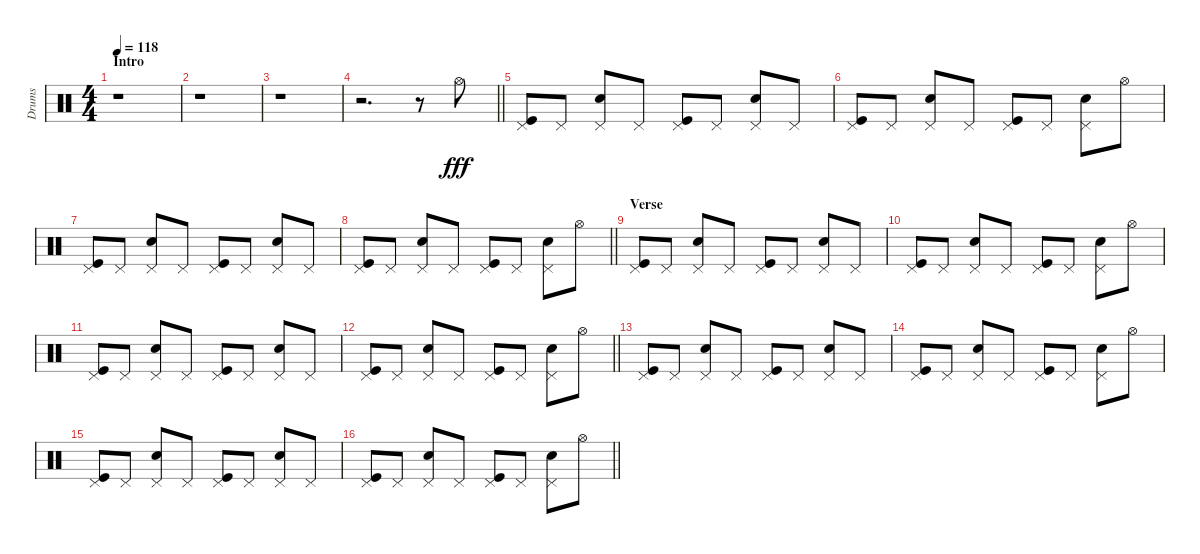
\track ("Drums" "Drums") {instrument percussion}
\staff {score}
\articulation defaults
\ts (4 4)
\section ("" "Intro")
\tempo 118
\clef neutral
\ks c
r.1{dy fff} |
r.1 |
r.1 |
\barLineRight lightlight
r.2{d} r.8 "Hi-Hat (open)".8 |
("Pedal Hi-Hat (hit)" "Kick (hit)").8 "Pedal Hi-Hat (hit)".8 ("Pedal Hi-Hat (hit)" "Electric Snare (hit)").8 "Pedal Hi-Hat (hit)".8 ("Pedal Hi-Hat (hit)" "Kick (hit)").8 "Pedal Hi-Hat (hit)".8 ("Pedal Hi-Hat (hit)" "Electric Snare (hit)").8 "Pedal Hi-Hat (hit)".8 |
("Pedal Hi-Hat (hit)" "Kick (hit)").8 "Pedal Hi-Hat (hit)".8 ("Pedal Hi-Hat (hit)" "Electric Snare (hit)").8 "Pedal Hi-Hat (hit)".8 ("Pedal Hi-Hat (hit)" "Kick (hit)").8 "Pedal Hi-Hat (hit)".8 ("Pedal Hi-Hat (hit)" "Electric Snare (hit)").8 "Hi-Hat (open)".8 |
("Pedal Hi-Hat (hit)" "Kick (hit)").8 "Pedal Hi-Hat (hit)".8 ("Pedal Hi-Hat (hit)" "Electric Snare (hit)").8 "Pedal Hi-Hat (hit)".8 ("Pedal Hi-Hat (hit)" "Kick (hit)").8 "Pedal Hi-Hat (hit)".8 ("Pedal Hi-Hat (hit)" "Electric Snare (hit)").8 "Pedal Hi-Hat (hit)".8 |
\barLineRight lightlight
("Pedal Hi-Hat (hit)" "Kick (hit)").8 "Pedal Hi-Hat (hit)".8 ("Pedal Hi-Hat (hit)" "Electric Snare (hit)").8 "Pedal Hi-Hat (hit)".8 ("Pedal Hi-Hat (hit)" "Kick (hit)").8 "Pedal Hi-Hat (hit)".8 ("Pedal Hi-Hat (hit)" "Electric Snare (hit)").8 "Hi-Hat (open)".8 |
\section ("" "Verse")
("Pedal Hi-Hat (hit)" "Kick (hit)").8 "Pedal Hi-Hat (hit)".8 ("Pedal Hi-Hat (hit)" "Electric Snare (hit)").8 "Pedal Hi-Hat (hit)".8 ("Pedal Hi-Hat (hit)" "Kick (hit)").8 "Pedal Hi-Hat (hit)".8 ("Pedal Hi-Hat (hit)" "Electric Snare (hit)").8 "Pedal Hi-Hat (hit)".8 |
("Pedal Hi-Hat (hit)" "Kick (hit)").8 "Pedal Hi-Hat (hit)".8 ("Pedal Hi-Hat (hit)" "Electric Snare (hit)").8 "Pedal Hi-Hat (hit)".8 ("Pedal Hi-Hat (hit)" "Kick (hit)").8 "Pedal Hi-Hat (hit)".8 ("Pedal Hi-Hat (hit)" "Electric Snare (hit)").8 "Hi-Hat (open)".8 |
("Pedal Hi-Hat (hit)" "Kick (hit)").8 "Pedal Hi-Hat (hit)".8 ("Pedal Hi-Hat (hit)" "Electric Snare (hit)").8 "Pedal Hi-Hat (hit)".8 ("Pedal Hi-Hat (hit)" "Kick (hit)").8 "Pedal Hi-Hat (hit)".8 ("Pedal Hi-Hat (hit)" "Electric Snare (hit)").8 "Pedal Hi-Hat (hit)".8 |
\barLineRight lightlight
("Pedal Hi-Hat (hit)" "Kick (hit)").8 "Pedal Hi-Hat (hit)".8 ("Pedal Hi-Hat (hit)" "Electric Snare (hit)").8 "Pedal Hi-Hat (hit)".8 ("Pedal Hi-Hat (hit)" "Kick (hit)").8 "Pedal Hi-Hat (hit)".8 ("Pedal Hi-Hat (hit)" "Electric Snare (hit)").8 "Hi-Hat (open)".8 |
("Pedal Hi-Hat (hit)" "Kick (hit)").8 "Pedal Hi-Hat (hit)".8 ("Pedal Hi-Hat (hit)" "Electric Snare (hit)").8 "Pedal Hi-Hat (hit)".8 ("Pedal Hi-Hat (hit)" "Kick (hit)").8 "Pedal Hi-Hat (hit)".8 ("Pedal Hi-Hat (hit)" "Electric Snare (hit)").8 "Pedal Hi-Hat (hit)".8 |
("Pedal Hi-Hat (hit)" "Kick (hit)").8 "Pedal Hi-Hat (hit)".8 ("Pedal Hi-Hat (hit)" "Electric Snare (hit)").8 "Pedal Hi-Hat (hit)".8 ("Pedal Hi-Hat (hit)" "Kick (hit)").8 "Pedal Hi-Hat (hit)".8 ("Pedal Hi-Hat (hit)" "Electric Snare (hit)").8 "Hi-Hat (open)".8 |
("Pedal Hi-Hat (hit)" "Kick (hit)").8 "Pedal Hi-Hat (hit)".8 ("Pedal Hi-Hat (hit)" "Electric Snare (hit)").8 "Pedal Hi-Hat (hit)".8 ("Pedal Hi-Hat (hit)" "Kick (hit)").8 "Pedal Hi-Hat (hit)".8 ("Pedal Hi-Hat (hit)" "Electric Snare (hit)").8 "Pedal Hi-Hat (hit)".8 |
\barLineRight lightlight
("Pedal Hi-Hat (hit)" "Kick (hit)").8 "Pedal Hi-Hat (hit)".8 ("Pedal Hi-Hat (hit)" "Electric Snare (hit)").8 "Pedal Hi-Hat (hit)".8 ("Pedal Hi-Hat (hit)" "Kick (hit)").8 "Pedal Hi-Hat (hit)".8 ("Pedal Hi-Hat (hit)" "Electric Snare (hit)").8 "Hi-Hat (open)".8
